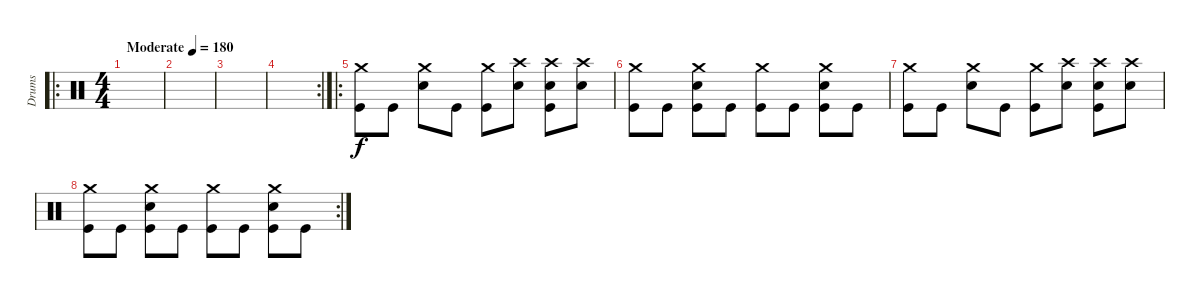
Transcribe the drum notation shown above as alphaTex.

\track ("Drums" "Drums") {instrument percussion}
\staff {score}
\articulation defaults
\ro
\ts (4 4)
\tempo (180 "Moderate")
\clef neutral
\ks c
|
|
|
\rc 2
|
\ro
("Crash medium (hit)" "Kick (hit)").8 "Kick (hit)".8 ("Crash medium (hit)" "Snare (hit) 2").8 "Kick (hit)".8 ("Crash medium (hit)" "Kick (hit)").8 ("Crash high (hit)" "Snare (hit) 2").8 ("Crash high (hit)" "Snare (hit) 2" "Kick (hit)").8 ("Crash high (hit)" "Snare (hit) 2").8 |
("Crash medium (hit)" "Kick (hit)").8 "Kick (hit)".8 ("Crash medium (hit)" "Snare (hit) 2" "Kick (hit)").8 "Kick (hit)".8 ("Crash medium (hit)" "Kick (hit)").8 "Kick (hit)".8 ("Crash medium (hit)" "Snare (hit) 2" "Kick (hit)").8 "Kick (hit)".8 |
("Crash medium (hit)" "Kick (hit)").8 "Kick (hit)".8 ("Crash medium (hit)" "Snare (hit) 2").8 "Kick (hit)".8 ("Crash medium (hit)" "Kick (hit)").8 ("Crash high (hit)" "Snare (hit) 2").8 ("Crash high (hit)" "Snare (hit) 2" "Kick (hit)").8 ("Crash high (hit)" "Snare (hit) 2").8 |
\rc 2
("Crash medium (hit)" "Kick (hit)").8 "Kick (hit)".8 ("Crash medium (hit)" "Snare (hit) 2" "Kick (hit)").8 "Kick (hit)".8 ("Crash medium (hit)" "Kick (hit)").8 "Kick (hit)".8 ("Crash medium (hit)" "Snare (hit) 2" "Kick (hit)").8 "Kick (hit)".8
